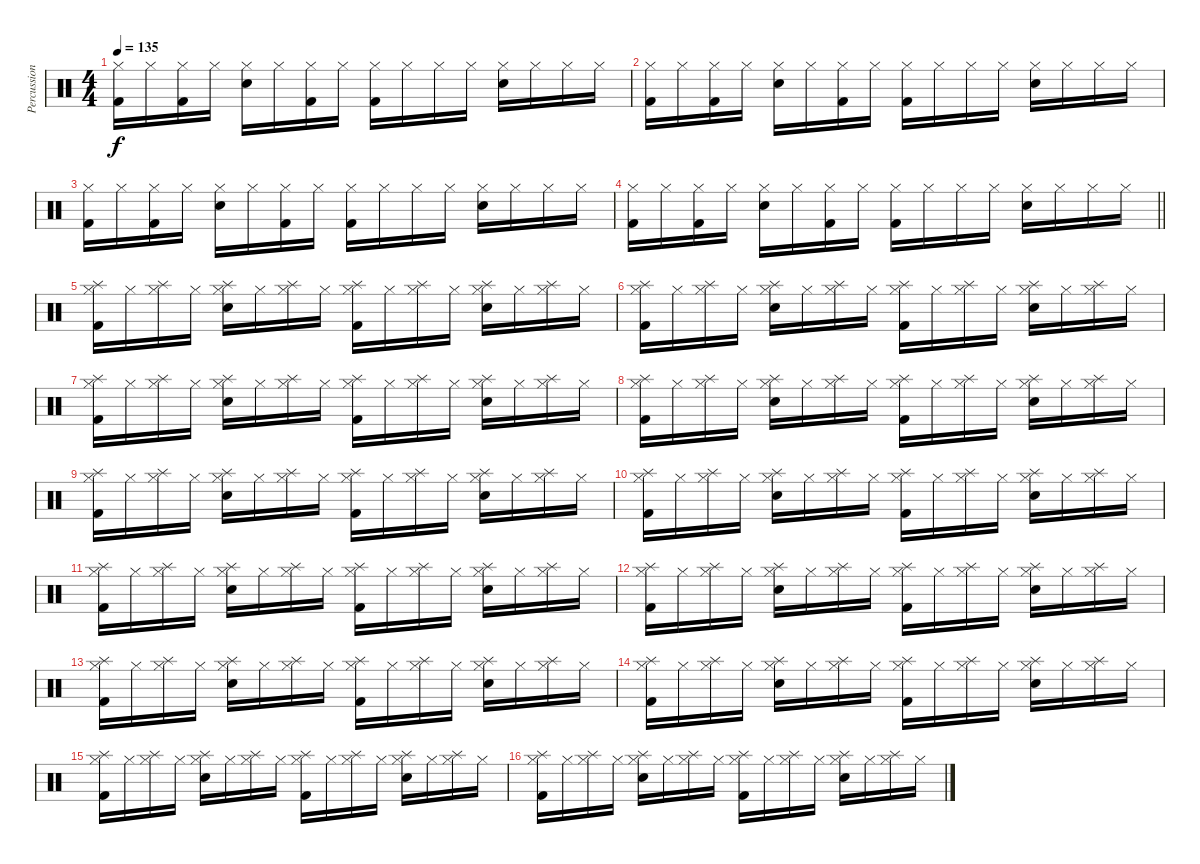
\track ("Percussion" "Percussion") {instrument percussion}
\staff {score}
\articulation defaults
\ts (4 4)
\tempo 135
\clef neutral
\ks c
("Hi-Hat (closed)" "Kick (hit) 2").16{dy f} "Hi-Hat (closed)".16 ("Hi-Hat (closed)" "Kick (hit) 2").16 "Hi-Hat (closed)".16 ("Hi-Hat (closed)" "Snare (hit) 2").16 "Hi-Hat (closed)".16 ("Hi-Hat (closed)" "Kick (hit) 2").16 "Hi-Hat (closed)".16 ("Hi-Hat (closed)" "Kick (hit) 2").16 "Hi-Hat (closed)".16 "Hi-Hat (closed)".16 "Hi-Hat (closed)".16 ("Hi-Hat (closed)" "Snare (hit) 2").16 "Hi-Hat (closed)".16 "Hi-Hat (closed)".16 "Hi-Hat (closed)".16 |
("Hi-Hat (closed)" "Kick (hit) 2").16 "Hi-Hat (closed)".16 ("Hi-Hat (closed)" "Kick (hit) 2").16 "Hi-Hat (closed)".16 ("Hi-Hat (closed)" "Snare (hit) 2").16 "Hi-Hat (closed)".16 ("Hi-Hat (closed)" "Kick (hit) 2").16 "Hi-Hat (closed)".16 ("Hi-Hat (closed)" "Kick (hit) 2").16 "Hi-Hat (closed)".16 "Hi-Hat (closed)".16 "Hi-Hat (closed)".16 ("Hi-Hat (closed)" "Snare (hit) 2").16 "Hi-Hat (closed)".16 "Hi-Hat (closed)".16 "Hi-Hat (closed)".16 |
("Hi-Hat (closed)" "Kick (hit) 2").16 "Hi-Hat (closed)".16 ("Hi-Hat (closed)" "Kick (hit) 2").16 "Hi-Hat (closed)".16 ("Hi-Hat (closed)" "Snare (hit) 2").16 "Hi-Hat (closed)".16 ("Hi-Hat (closed)" "Kick (hit) 2").16 "Hi-Hat (closed)".16 ("Hi-Hat (closed)" "Kick (hit) 2").16 "Hi-Hat (closed)".16 "Hi-Hat (closed)".16 "Hi-Hat (closed)".16 ("Hi-Hat (closed)" "Snare (hit) 2").16 "Hi-Hat (closed)".16 "Hi-Hat (closed)".16 "Hi-Hat (closed)".16 |
\barLineRight lightlight
("Hi-Hat (closed)" "Kick (hit) 2").16 "Hi-Hat (closed)".16 ("Hi-Hat (closed)" "Kick (hit) 2").16 "Hi-Hat (closed)".16 ("Hi-Hat (closed)" "Snare (hit) 2").16 "Hi-Hat (closed)".16 ("Hi-Hat (closed)" "Kick (hit) 2").16 "Hi-Hat (closed)".16 ("Hi-Hat (closed)" "Kick (hit) 2").16 "Hi-Hat (closed)".16 "Hi-Hat (closed)".16 "Hi-Hat (closed)".16 ("Hi-Hat (closed)" "Snare (hit) 2").16 "Hi-Hat (closed)".16 "Hi-Hat (closed)".16 "Hi-Hat (closed)".16 |
\section ("" "")
("Hi-Hat (closed)" "Splash (hit)" "Kick (hit) 2").16 "Hi-Hat (closed)".16 ("Hi-Hat (closed)" "Splash (hit)").16 "Hi-Hat (closed)".16 ("Hi-Hat (closed)" "Splash (hit)" "Snare (hit) 2").16 "Hi-Hat (closed)".16 ("Hi-Hat (closed)" "Splash (hit)").16 "Hi-Hat (closed)".16 ("Hi-Hat (closed)" "Splash (hit)" "Kick (hit) 2").16 "Hi-Hat (closed)".16 ("Hi-Hat (closed)" "Splash (hit)").16 "Hi-Hat (closed)".16 ("Hi-Hat (closed)" "Splash (hit)" "Snare (hit) 2").16 "Hi-Hat (closed)".16 ("Hi-Hat (closed)" "Splash (hit)").16 "Hi-Hat (closed)".16 |
("Hi-Hat (closed)" "Splash (hit)" "Kick (hit) 2").16 "Hi-Hat (closed)".16 ("Hi-Hat (closed)" "Splash (hit)").16 "Hi-Hat (closed)".16 ("Hi-Hat (closed)" "Splash (hit)" "Snare (hit) 2").16 "Hi-Hat (closed)".16 ("Hi-Hat (closed)" "Splash (hit)").16 "Hi-Hat (closed)".16 ("Hi-Hat (closed)" "Splash (hit)" "Kick (hit) 2").16 "Hi-Hat (closed)".16 ("Hi-Hat (closed)" "Splash (hit)").16 "Hi-Hat (closed)".16 ("Hi-Hat (closed)" "Splash (hit)" "Snare (hit) 2").16 "Hi-Hat (closed)".16 ("Hi-Hat (closed)" "Splash (hit)").16 "Hi-Hat (closed)".16 |
("Hi-Hat (closed)" "Splash (hit)" "Kick (hit) 2").16 "Hi-Hat (closed)".16 ("Hi-Hat (closed)" "Splash (hit)").16 "Hi-Hat (closed)".16 ("Hi-Hat (closed)" "Splash (hit)" "Snare (hit) 2").16 "Hi-Hat (closed)".16 ("Hi-Hat (closed)" "Splash (hit)").16 "Hi-Hat (closed)".16 ("Hi-Hat (closed)" "Splash (hit)" "Kick (hit) 2").16 "Hi-Hat (closed)".16 ("Hi-Hat (closed)" "Splash (hit)").16 "Hi-Hat (closed)".16 ("Hi-Hat (closed)" "Splash (hit)" "Snare (hit) 2").16 "Hi-Hat (closed)".16 ("Hi-Hat (closed)" "Splash (hit)").16 "Hi-Hat (closed)".16 |
("Hi-Hat (closed)" "Splash (hit)" "Kick (hit) 2").16 "Hi-Hat (closed)".16 ("Hi-Hat (closed)" "Splash (hit)").16 "Hi-Hat (closed)".16 ("Hi-Hat (closed)" "Splash (hit)" "Snare (hit) 2").16 "Hi-Hat (closed)".16 ("Hi-Hat (closed)" "Splash (hit)").16 "Hi-Hat (closed)".16 ("Hi-Hat (closed)" "Splash (hit)" "Kick (hit) 2").16 "Hi-Hat (closed)".16 ("Hi-Hat (closed)" "Splash (hit)").16 "Hi-Hat (closed)".16 ("Hi-Hat (closed)" "Splash (hit)" "Snare (hit) 2").16 "Hi-Hat (closed)".16 ("Hi-Hat (closed)" "Splash (hit)").16 "Hi-Hat (closed)".16 |
("Hi-Hat (closed)" "Splash (hit)" "Kick (hit) 2").16 "Hi-Hat (closed)".16 ("Hi-Hat (closed)" "Splash (hit)").16 "Hi-Hat (closed)".16 ("Hi-Hat (closed)" "Splash (hit)" "Snare (hit) 2").16 "Hi-Hat (closed)".16 ("Hi-Hat (closed)" "Splash (hit)").16 "Hi-Hat (closed)".16 ("Hi-Hat (closed)" "Splash (hit)" "Kick (hit) 2").16 "Hi-Hat (closed)".16 ("Hi-Hat (closed)" "Splash (hit)").16 "Hi-Hat (closed)".16 ("Hi-Hat (closed)" "Splash (hit)" "Snare (hit) 2").16 "Hi-Hat (closed)".16 ("Hi-Hat (closed)" "Splash (hit)").16 "Hi-Hat (closed)".16 |
("Hi-Hat (closed)" "Splash (hit)" "Kick (hit) 2").16 "Hi-Hat (closed)".16 ("Hi-Hat (closed)" "Splash (hit)").16 "Hi-Hat (closed)".16 ("Hi-Hat (closed)" "Splash (hit)" "Snare (hit) 2").16 "Hi-Hat (closed)".16 ("Hi-Hat (closed)" "Splash (hit)").16 "Hi-Hat (closed)".16 ("Hi-Hat (closed)" "Splash (hit)" "Kick (hit) 2").16 "Hi-Hat (closed)".16 ("Hi-Hat (closed)" "Splash (hit)").16 "Hi-Hat (closed)".16 ("Hi-Hat (closed)" "Splash (hit)" "Snare (hit) 2").16 "Hi-Hat (closed)".16 ("Hi-Hat (closed)" "Splash (hit)").16 "Hi-Hat (closed)".16 |
("Hi-Hat (closed)" "Splash (hit)" "Kick (hit) 2").16 "Hi-Hat (closed)".16 ("Hi-Hat (closed)" "Splash (hit)").16 "Hi-Hat (closed)".16 ("Hi-Hat (closed)" "Splash (hit)" "Snare (hit) 2").16 "Hi-Hat (closed)".16 ("Hi-Hat (closed)" "Splash (hit)").16 "Hi-Hat (closed)".16 ("Hi-Hat (closed)" "Splash (hit)" "Kick (hit) 2").16 "Hi-Hat (closed)".16 ("Hi-Hat (closed)" "Splash (hit)").16 "Hi-Hat (closed)".16 ("Hi-Hat (closed)" "Splash (hit)" "Snare (hit) 2").16 "Hi-Hat (closed)".16 ("Hi-Hat (closed)" "Splash (hit)").16 "Hi-Hat (closed)".16 |
("Hi-Hat (closed)" "Splash (hit)" "Kick (hit) 2").16 "Hi-Hat (closed)".16 ("Hi-Hat (closed)" "Splash (hit)").16 "Hi-Hat (closed)".16 ("Hi-Hat (closed)" "Splash (hit)" "Snare (hit) 2").16 "Hi-Hat (closed)".16 ("Hi-Hat (closed)" "Splash (hit)").16 "Hi-Hat (closed)".16 ("Hi-Hat (closed)" "Splash (hit)" "Kick (hit) 2").16 "Hi-Hat (closed)".16 ("Hi-Hat (closed)" "Splash (hit)").16 "Hi-Hat (closed)".16 ("Hi-Hat (closed)" "Splash (hit)" "Snare (hit) 2").16 "Hi-Hat (closed)".16 ("Hi-Hat (closed)" "Splash (hit)").16 "Hi-Hat (closed)".16 |
("Hi-Hat (closed)" "Splash (hit)" "Kick (hit) 2").16 "Hi-Hat (closed)".16 ("Hi-Hat (closed)" "Splash (hit)").16 "Hi-Hat (closed)".16 ("Hi-Hat (closed)" "Splash (hit)" "Snare (hit) 2").16 "Hi-Hat (closed)".16 ("Hi-Hat (closed)" "Splash (hit)").16 "Hi-Hat (closed)".16 ("Hi-Hat (closed)" "Splash (hit)" "Kick (hit) 2").16 "Hi-Hat (closed)".16 ("Hi-Hat (closed)" "Splash (hit)").16 "Hi-Hat (closed)".16 ("Hi-Hat (closed)" "Splash (hit)" "Snare (hit) 2").16 "Hi-Hat (closed)".16 ("Hi-Hat (closed)" "Splash (hit)").16 "Hi-Hat (closed)".16 |
("Hi-Hat (closed)" "Splash (hit)" "Kick (hit) 2").16 "Hi-Hat (closed)".16 ("Hi-Hat (closed)" "Splash (hit)").16 "Hi-Hat (closed)".16 ("Hi-Hat (closed)" "Splash (hit)" "Snare (hit) 2").16 "Hi-Hat (closed)".16 ("Hi-Hat (closed)" "Splash (hit)").16 "Hi-Hat (closed)".16 ("Hi-Hat (closed)" "Splash (hit)" "Kick (hit) 2").16 "Hi-Hat (closed)".16 ("Hi-Hat (closed)" "Splash (hit)").16 "Hi-Hat (closed)".16 ("Hi-Hat (closed)" "Splash (hit)" "Snare (hit) 2").16 "Hi-Hat (closed)".16 ("Hi-Hat (closed)" "Splash (hit)").16 "Hi-Hat (closed)".16 |
("Hi-Hat (closed)" "Splash (hit)" "Kick (hit) 2").16 "Hi-Hat (closed)".16 ("Hi-Hat (closed)" "Splash (hit)").16 "Hi-Hat (closed)".16 ("Hi-Hat (closed)" "Splash (hit)" "Snare (hit) 2").16 "Hi-Hat (closed)".16 ("Hi-Hat (closed)" "Splash (hit)").16 "Hi-Hat (closed)".16 ("Hi-Hat (closed)" "Splash (hit)" "Kick (hit) 2").16 "Hi-Hat (closed)".16 ("Hi-Hat (closed)" "Splash (hit)").16 "Hi-Hat (closed)".16 ("Hi-Hat (closed)" "Splash (hit)" "Snare (hit) 2").16 "Hi-Hat (closed)".16 ("Hi-Hat (closed)" "Splash (hit)").16 "Hi-Hat (closed)".16 |
("Hi-Hat (closed)" "Splash (hit)" "Kick (hit) 2").16 "Hi-Hat (closed)".16 ("Hi-Hat (closed)" "Splash (hit)").16 "Hi-Hat (closed)".16 ("Hi-Hat (closed)" "Splash (hit)" "Snare (hit) 2").16 "Hi-Hat (closed)".16 ("Hi-Hat (closed)" "Splash (hit)").16 "Hi-Hat (closed)".16 ("Hi-Hat (closed)" "Splash (hit)" "Kick (hit) 2").16 "Hi-Hat (closed)".16 ("Hi-Hat (closed)" "Splash (hit)").16 "Hi-Hat (closed)".16 ("Hi-Hat (closed)" "Splash (hit)" "Snare (hit) 2").16 "Hi-Hat (closed)".16 ("Hi-Hat (closed)" "Splash (hit)").16 "Hi-Hat (closed)".16
